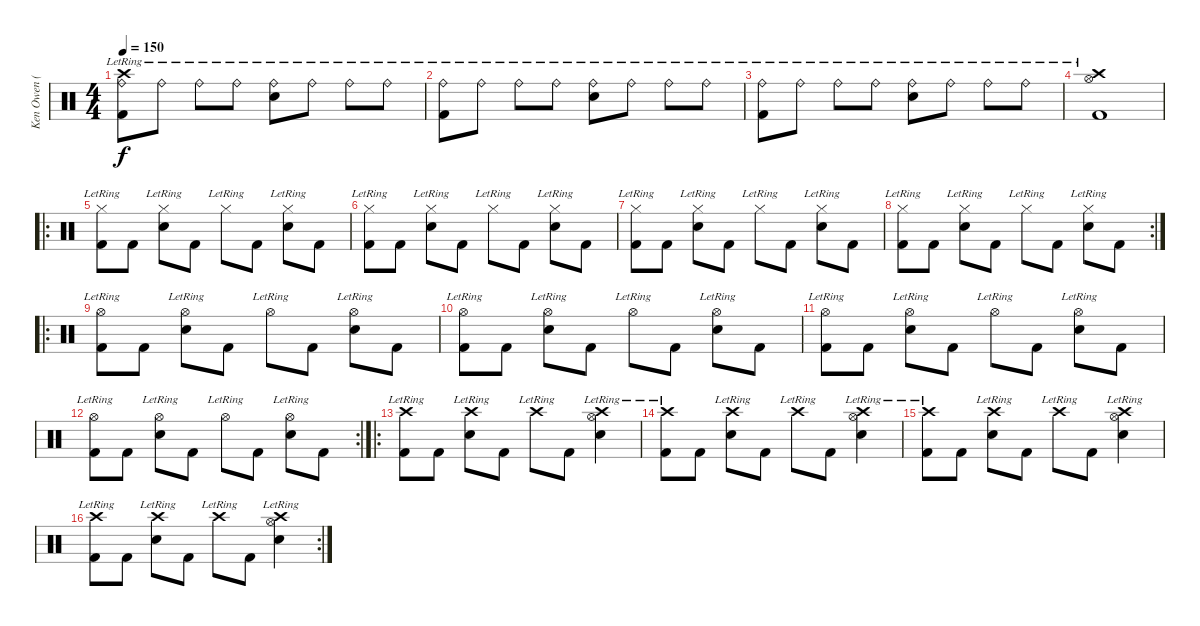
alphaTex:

\track ("Ken Owen (Drums)" "Ken Owen (") {instrument percussion}
\staff {score}
\articulation defaults
\ts (4 4)
\tempo 150
\clef neutral
\ks c
("Crash high (hit)"{lr} "Ride (bell)"{lr} "Kick (hit) 2").8{dy f} "Ride (bell)"{lr}.8 "Ride (bell)"{lr}.8 "Ride (bell)"{lr}.8 ("Ride (bell)"{lr} "Snare (hit) 2").8 "Ride (bell)"{lr}.8 "Ride (bell)"{lr}.8 "Ride (bell)"{lr}.8 |
("Ride (bell)"{lr} "Kick (hit) 2").8 "Ride (bell)"{lr}.8 "Ride (bell)"{lr}.8 "Ride (bell)"{lr}.8 ("Ride (bell)"{lr} "Snare (hit) 2").8 "Ride (bell)"{lr}.8 "Ride (bell)"{lr}.8 "Ride (bell)"{lr}.8 |
("Ride (bell)"{lr} "Kick (hit) 2").8 "Ride (bell)"{lr}.8 "Ride (bell)"{lr}.8 "Ride (bell)"{lr}.8 ("Ride (bell)"{lr} "Snare (hit) 2").8 "Ride (bell)"{lr}.8 "Ride (bell)"{lr}.8 "Ride (bell)"{lr}.8 |
("Crash high (hit)" "Hi-Hat (open)"{lr} "Kick (hit) 2").1 |
\ro
("Hi-Hat (closed)"{lr} "Kick (hit) 2").8 "Kick (hit) 2".8 ("Hi-Hat (closed)"{lr} "Snare (hit) 2").8 "Kick (hit) 2".8 "Hi-Hat (closed)"{lr}.8 "Kick (hit) 2".8 ("Hi-Hat (closed)"{lr} "Snare (hit) 2").8 "Kick (hit) 2".8 |
("Hi-Hat (closed)"{lr} "Kick (hit) 2").8 "Kick (hit) 2".8 ("Hi-Hat (closed)"{lr} "Snare (hit) 2").8 "Kick (hit) 2".8 "Hi-Hat (closed)"{lr}.8 "Kick (hit) 2".8 ("Hi-Hat (closed)"{lr} "Snare (hit) 2").8 "Kick (hit) 2".8 |
("Hi-Hat (closed)"{lr} "Kick (hit) 2").8 "Kick (hit) 2".8 ("Hi-Hat (closed)"{lr} "Snare (hit) 2").8 "Kick (hit) 2".8 "Hi-Hat (closed)"{lr}.8 "Kick (hit) 2".8 ("Hi-Hat (closed)"{lr} "Snare (hit) 2").8 "Kick (hit) 2".8 |
\rc 2
("Hi-Hat (closed)"{lr} "Kick (hit) 2").8 "Kick (hit) 2".8 ("Hi-Hat (closed)"{lr} "Snare (hit) 2").8 "Kick (hit) 2".8 "Hi-Hat (closed)"{lr}.8 "Kick (hit) 2".8 ("Hi-Hat (closed)"{lr} "Snare (hit) 2").8 "Kick (hit) 2".8 |
\ro
("Hi-Hat (open)"{lr} "Kick (hit) 2").8 "Kick (hit) 2".8 ("Hi-Hat (open)"{lr} "Snare (hit) 2").8 "Kick (hit) 2".8 "Hi-Hat (open)"{lr}.8 "Kick (hit) 2".8 ("Hi-Hat (open)"{lr} "Snare (hit) 2").8 "Kick (hit) 2".8 |
("Hi-Hat (open)"{lr} "Kick (hit) 2").8 "Kick (hit) 2".8 ("Hi-Hat (open)"{lr} "Snare (hit) 2").8 "Kick (hit) 2".8 "Hi-Hat (open)"{lr}.8 "Kick (hit) 2".8 ("Hi-Hat (open)"{lr} "Snare (hit) 2").8 "Kick (hit) 2".8 |
("Hi-Hat (open)"{lr} "Kick (hit) 2").8 "Kick (hit) 2".8 ("Hi-Hat (open)"{lr} "Snare (hit) 2").8 "Kick (hit) 2".8 "Hi-Hat (open)"{lr}.8 "Kick (hit) 2".8 ("Hi-Hat (open)"{lr} "Snare (hit) 2").8 "Kick (hit) 2".8 |
\rc 2
("Hi-Hat (open)"{lr} "Kick (hit) 2").8 "Kick (hit) 2".8 ("Hi-Hat (open)"{lr} "Snare (hit) 2").8 "Kick (hit) 2".8 "Hi-Hat (open)"{lr}.8 "Kick (hit) 2".8 ("Hi-Hat (open)"{lr} "Snare (hit) 2").8 "Kick (hit) 2".8 |
\ro
("Crash high (hit)"{lr} "Kick (hit) 2").8 "Kick (hit) 2".8 ("Crash high (hit)"{lr} "Snare (hit) 2").8 "Kick (hit) 2".8 "Crash high (hit)"{lr}.8 "Kick (hit) 2".8 ("Crash high (hit)"{lr} "Hi-Hat (open)"{lr} "Snare (hit) 2").4 |
("Crash high (hit)"{lr} "Kick (hit) 2").8 "Kick (hit) 2".8 ("Crash high (hit)"{lr} "Snare (hit) 2").8 "Kick (hit) 2".8 "Crash high (hit)"{lr}.8 "Kick (hit) 2".8 ("Crash high (hit)"{lr} "Hi-Hat (open)"{lr} "Snare (hit) 2").4 |
("Crash high (hit)"{lr} "Kick (hit) 2").8 "Kick (hit) 2".8 ("Crash high (hit)"{lr} "Snare (hit) 2").8 "Kick (hit) 2".8 "Crash high (hit)"{lr}.8 "Kick (hit) 2".8 ("Crash high (hit)"{lr} "Hi-Hat (open)"{lr} "Snare (hit) 2").4 |
\rc 2
("Crash high (hit)"{lr} "Kick (hit) 2").8 "Kick (hit) 2".8 ("Crash high (hit)"{lr} "Snare (hit) 2").8 "Kick (hit) 2".8 "Crash high (hit)"{lr}.8 "Kick (hit) 2".8 ("Crash high (hit)"{lr} "Hi-Hat (open)"{lr} "Snare (hit) 2").4
